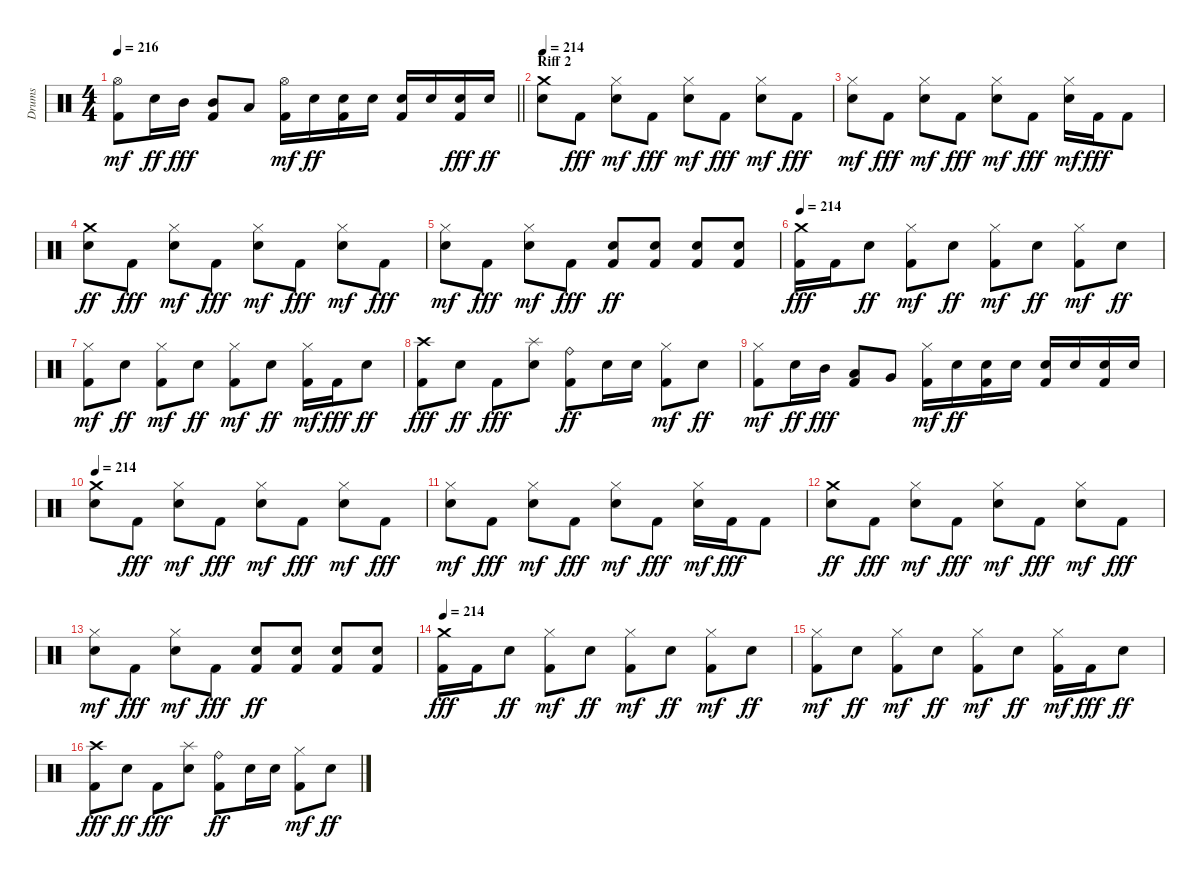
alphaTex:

\track ("Drums" "Drums") {instrument percussion}
\staff {score}
\articulation defaults
\ts (4 4)
\tempo 216
\clef neutral
\barLineRight lightlight
\ks c
("Kick (hit) 2" "Hi-Hat (open)").8{dy mf} "Snare (hit) 2".16{dy ff} "Mid Tom (hit)".16{dy fff} ("Kick (hit) 2" "Mid Tom (hit)").8 "Low Tom (hit)".8 ("Kick (hit) 2" "Hi-Hat (open)").16{dy mf} "Snare (hit) 2".16{dy ff} ("Kick (hit) 2" "Snare (hit) 2").16 "Snare (hit) 2".16 ("Kick (hit) 2" "Snare (hit) 2").16 "Snare (hit) 2".16 ("Kick (hit) 2" "Snare (hit) 2").16{dy fff} "Snare (hit) 2".16{dy ff} |
\section ("" "Riff 2")
\tempo 214
("Snare (hit) 2" "Crash medium (hit)").8 "Kick (hit) 2".8{dy fff} ("Snare (hit) 2" "Hi-Hat (closed)").8{dy mf} "Kick (hit) 2".8{dy fff} ("Snare (hit) 2" "Hi-Hat (closed)").8{dy mf} "Kick (hit) 2".8{dy fff} ("Snare (hit) 2" "Hi-Hat (closed)").8{dy mf} "Kick (hit) 2".8{dy fff} |
("Snare (hit) 2" "Hi-Hat (closed)").8{dy mf} "Kick (hit) 2".8{dy fff} ("Snare (hit) 2" "Hi-Hat (closed)").8{dy mf} "Kick (hit) 2".8{dy fff} ("Snare (hit) 2" "Hi-Hat (closed)").8{dy mf} "Kick (hit) 2".8{dy fff} ("Snare (hit) 2" "Hi-Hat (closed)").16{dy mf} "Kick (hit) 2".16{dy fff} "Kick (hit) 2".8 |
("Snare (hit) 2" "Crash medium (hit)").8{dy ff} "Kick (hit) 2".8{dy fff} ("Snare (hit) 2" "Hi-Hat (closed)").8{dy mf} "Kick (hit) 2".8{dy fff} ("Snare (hit) 2" "Hi-Hat (closed)").8{dy mf} "Kick (hit) 2".8{dy fff} ("Snare (hit) 2" "Hi-Hat (closed)").8{dy mf} "Kick (hit) 2".8{dy fff} |
("Snare (hit) 2" "Hi-Hat (closed)").8{dy mf} "Kick (hit) 2".8{dy fff} ("Snare (hit) 2" "Hi-Hat (closed)").8{dy mf} "Kick (hit) 2".8{dy fff} ("Kick (hit) 2" "Snare (hit) 2").8{dy ff} ("Kick (hit) 2" "Snare (hit) 2").8 ("Kick (hit) 2" "Snare (hit) 2").8 ("Kick (hit) 2" "Snare (hit) 2").8 |
\tempo 214
("Kick (hit) 2" "Crash medium (hit)").16{dy fff} "Kick (hit) 2".16 "Snare (hit) 2".8{dy ff} ("Kick (hit) 2" "Hi-Hat (closed)").8{dy mf} "Snare (hit) 2".8{dy ff} ("Kick (hit) 2" "Hi-Hat (closed)").8{dy mf} "Snare (hit) 2".8{dy ff} ("Kick (hit) 2" "Hi-Hat (closed)").8{dy mf} "Snare (hit) 2".8{dy ff} |
("Kick (hit) 2" "Hi-Hat (closed)").8{dy mf} "Snare (hit) 2".8{dy ff} ("Kick (hit) 2" "Hi-Hat (closed)").8{dy mf} "Snare (hit) 2".8{dy ff} ("Kick (hit) 2" "Hi-Hat (closed)").8{dy mf} "Snare (hit) 2".8{dy ff} ("Kick (hit) 2" "Hi-Hat (closed)").16{dy mf} "Kick (hit) 2".16{dy fff} "Snare (hit) 2".8{dy ff} |
("Kick (hit) 2" "Crash high (hit)").8{dy fff} "Snare (hit) 2".8{dy ff} "Kick (hit) 2".8{dy fff} ("Snare (hit) 2" "Splash (hit)").8 ("Kick (hit) 2" "Ride (bell)").8{dy ff} "Snare (hit) 2".16 "Snare (hit) 2".16 ("Kick (hit) 2" "Hi-Hat (closed)").8{dy mf} "Snare (hit) 2".8{dy ff} |
("Kick (hit) 2" "Hi-Hat (closed)").8{dy mf} "Snare (hit) 2".16{dy ff} "Mid Tom (hit)".16{dy fff} ("Kick (hit) 2" "Low Tom (hit)").8 "Very Low Tom (hit)".8 ("Kick (hit) 2" "Hi-Hat (closed)").16{dy mf} "Snare (hit) 2".16{dy ff} ("Kick (hit) 2" "Snare (hit) 2").16 "Snare (hit) 2".16 ("Kick (hit) 2" "Snare (hit) 2").16 "Snare (hit) 2".16 ("Kick (hit) 2" "Snare (hit) 2").16 "Snare (hit) 2".16 |
\tempo 214
("Snare (hit) 2" "Crash medium (hit)").8 "Kick (hit) 2".8{dy fff} ("Snare (hit) 2" "Hi-Hat (closed)").8{dy mf} "Kick (hit) 2".8{dy fff} ("Snare (hit) 2" "Hi-Hat (closed)").8{dy mf} "Kick (hit) 2".8{dy fff} ("Snare (hit) 2" "Hi-Hat (closed)").8{dy mf} "Kick (hit) 2".8{dy fff} |
("Snare (hit) 2" "Hi-Hat (closed)").8{dy mf} "Kick (hit) 2".8{dy fff} ("Snare (hit) 2" "Hi-Hat (closed)").8{dy mf} "Kick (hit) 2".8{dy fff} ("Snare (hit) 2" "Hi-Hat (closed)").8{dy mf} "Kick (hit) 2".8{dy fff} ("Snare (hit) 2" "Hi-Hat (closed)").16{dy mf} "Kick (hit) 2".16{dy fff} "Kick (hit) 2".8 |
("Snare (hit) 2" "Crash medium (hit)").8{dy ff} "Kick (hit) 2".8{dy fff} ("Snare (hit) 2" "Hi-Hat (closed)").8{dy mf} "Kick (hit) 2".8{dy fff} ("Snare (hit) 2" "Hi-Hat (closed)").8{dy mf} "Kick (hit) 2".8{dy fff} ("Snare (hit) 2" "Hi-Hat (closed)").8{dy mf} "Kick (hit) 2".8{dy fff} |
("Snare (hit) 2" "Hi-Hat (closed)").8{dy mf} "Kick (hit) 2".8{dy fff} ("Snare (hit) 2" "Hi-Hat (closed)").8{dy mf} "Kick (hit) 2".8{dy fff} ("Kick (hit) 2" "Snare (hit) 2").8{dy ff} ("Kick (hit) 2" "Snare (hit) 2").8 ("Kick (hit) 2" "Snare (hit) 2").8 ("Kick (hit) 2" "Snare (hit) 2").8 |
\tempo 214
("Kick (hit) 2" "Crash medium (hit)").16{dy fff} "Kick (hit) 2".16 "Snare (hit) 2".8{dy ff} ("Kick (hit) 2" "Hi-Hat (closed)").8{dy mf} "Snare (hit) 2".8{dy ff} ("Kick (hit) 2" "Hi-Hat (closed)").8{dy mf} "Snare (hit) 2".8{dy ff} ("Kick (hit) 2" "Hi-Hat (closed)").8{dy mf} "Snare (hit) 2".8{dy ff} |
("Kick (hit) 2" "Hi-Hat (closed)").8{dy mf} "Snare (hit) 2".8{dy ff} ("Kick (hit) 2" "Hi-Hat (closed)").8{dy mf} "Snare (hit) 2".8{dy ff} ("Kick (hit) 2" "Hi-Hat (closed)").8{dy mf} "Snare (hit) 2".8{dy ff} ("Kick (hit) 2" "Hi-Hat (closed)").16{dy mf} "Kick (hit) 2".16{dy fff} "Snare (hit) 2".8{dy ff} |
("Kick (hit) 2" "Crash high (hit)").8{dy fff} "Snare (hit) 2".8{dy ff} "Kick (hit) 2".8{dy fff} ("Snare (hit) 2" "Splash (hit)").8 ("Kick (hit) 2" "Ride (bell)").8{dy ff} "Snare (hit) 2".16 "Snare (hit) 2".16 ("Kick (hit) 2" "Hi-Hat (closed)").8{dy mf} "Snare (hit) 2".8{dy ff}
